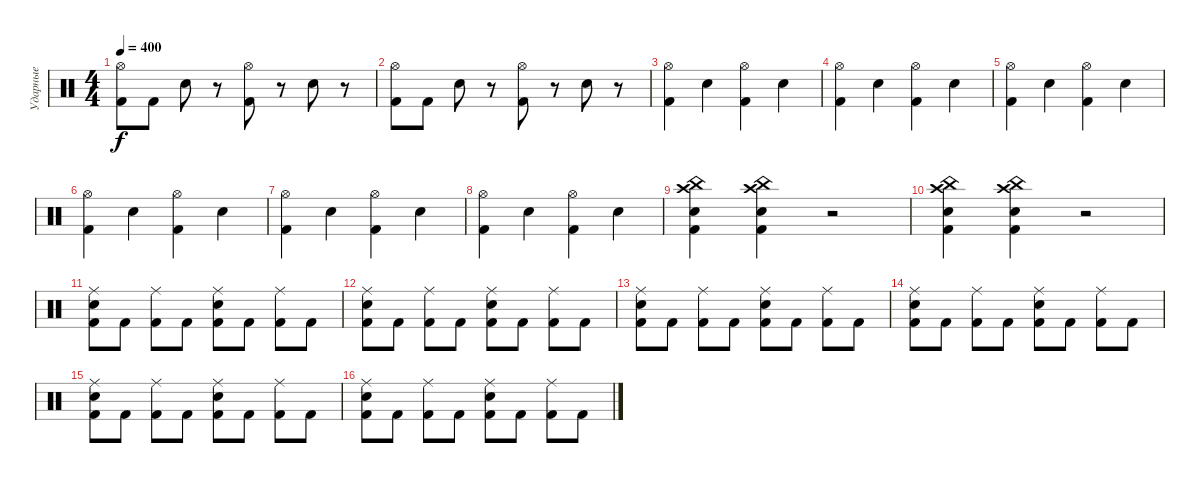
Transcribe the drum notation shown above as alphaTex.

\track ("Ударные" "Ударные") {instrument percussion}
\staff {score}
\articulation defaults
\ts (4 4)
\tempo 400
\clef neutral
\ks c
("Kick (hit) 2" "Hi-Hat (open)").8{dy f} "Kick (hit) 2".8 "Electric Snare (hit)".8 r.8 ("Kick (hit) 2" "Hi-Hat (open)").8 r.8 "Electric Snare (hit)".8 r.8 |
("Kick (hit) 2" "Hi-Hat (open)").8 "Kick (hit) 2".8 "Electric Snare (hit)".8 r.8 ("Kick (hit) 2" "Hi-Hat (open)").8 r.8 "Electric Snare (hit)".8 r.8 |
("Kick (hit) 2" "Hi-Hat (open)").4 "Electric Snare (hit)".4 ("Kick (hit) 2" "Hi-Hat (open)").4 "Electric Snare (hit)".4 |
("Kick (hit) 2" "Hi-Hat (open)").4 "Electric Snare (hit)".4 ("Kick (hit) 2" "Hi-Hat (open)").4 "Electric Snare (hit)".4 |
("Kick (hit) 2" "Hi-Hat (open)").4 "Electric Snare (hit)".4 ("Kick (hit) 2" "Hi-Hat (open)").4 "Electric Snare (hit)".4 |
("Kick (hit) 2" "Hi-Hat (open)").4 "Electric Snare (hit)".4 ("Kick (hit) 2" "Hi-Hat (open)").4 "Electric Snare (hit)".4 |
("Kick (hit) 2" "Hi-Hat (open)").4 "Electric Snare (hit)".4 ("Kick (hit) 2" "Hi-Hat (open)").4 "Electric Snare (hit)".4 |
("Kick (hit) 2" "Hi-Hat (open)").4 "Electric Snare (hit)".4 ("Kick (hit) 2" "Hi-Hat (open)").4 "Electric Snare (hit)".4 |
("Kick (hit) 2" "Electric Snare (hit)" "Crash high (hit)" "China (hit)").4 ("China (hit)" "Crash high (hit)" "Kick (hit) 2" "Electric Snare (hit)").4 r.2 |
("Kick (hit) 2" "Electric Snare (hit)" "Crash high (hit)" "China (hit)").4 ("China (hit)" "Crash high (hit)" "Kick (hit) 2" "Electric Snare (hit)").4 r.2 |
("Kick (hit) 2" "Electric Snare (hit)" "Ride (middle)").8 "Kick (hit) 2".8 ("Kick (hit) 2" "Ride (middle)").8 "Kick (hit) 2".8 ("Kick (hit) 2" "Electric Snare (hit)" "Ride (middle)").8 "Kick (hit) 2".8 ("Kick (hit) 2" "Ride (middle)").8 "Kick (hit) 2".8 |
("Kick (hit) 2" "Electric Snare (hit)" "Ride (middle)").8 "Kick (hit) 2".8 ("Kick (hit) 2" "Ride (middle)").8 "Kick (hit) 2".8 ("Kick (hit) 2" "Electric Snare (hit)" "Ride (middle)").8 "Kick (hit) 2".8 ("Kick (hit) 2" "Ride (middle)").8 "Kick (hit) 2".8 |
("Kick (hit) 2" "Electric Snare (hit)" "Ride (middle)").8 "Kick (hit) 2".8 ("Kick (hit) 2" "Ride (middle)").8 "Kick (hit) 2".8 ("Kick (hit) 2" "Electric Snare (hit)" "Ride (middle)").8 "Kick (hit) 2".8 ("Kick (hit) 2" "Ride (middle)").8 "Kick (hit) 2".8 |
("Kick (hit) 2" "Electric Snare (hit)" "Ride (middle)").8 "Kick (hit) 2".8 ("Kick (hit) 2" "Ride (middle)").8 "Kick (hit) 2".8 ("Kick (hit) 2" "Electric Snare (hit)" "Ride (middle)").8 "Kick (hit) 2".8 ("Kick (hit) 2" "Ride (middle)").8 "Kick (hit) 2".8 |
("Kick (hit) 2" "Electric Snare (hit)" "Ride (middle)").8 "Kick (hit) 2".8 ("Kick (hit) 2" "Ride (middle)").8 "Kick (hit) 2".8 ("Kick (hit) 2" "Electric Snare (hit)" "Ride (middle)").8 "Kick (hit) 2".8 ("Kick (hit) 2" "Ride (middle)").8 "Kick (hit) 2".8 |
("Kick (hit) 2" "Electric Snare (hit)" "Ride (middle)").8 "Kick (hit) 2".8 ("Kick (hit) 2" "Ride (middle)").8 "Kick (hit) 2".8 ("Kick (hit) 2" "Electric Snare (hit)" "Ride (middle)").8 "Kick (hit) 2".8 ("Kick (hit) 2" "Ride (middle)").8 "Kick (hit) 2".8
